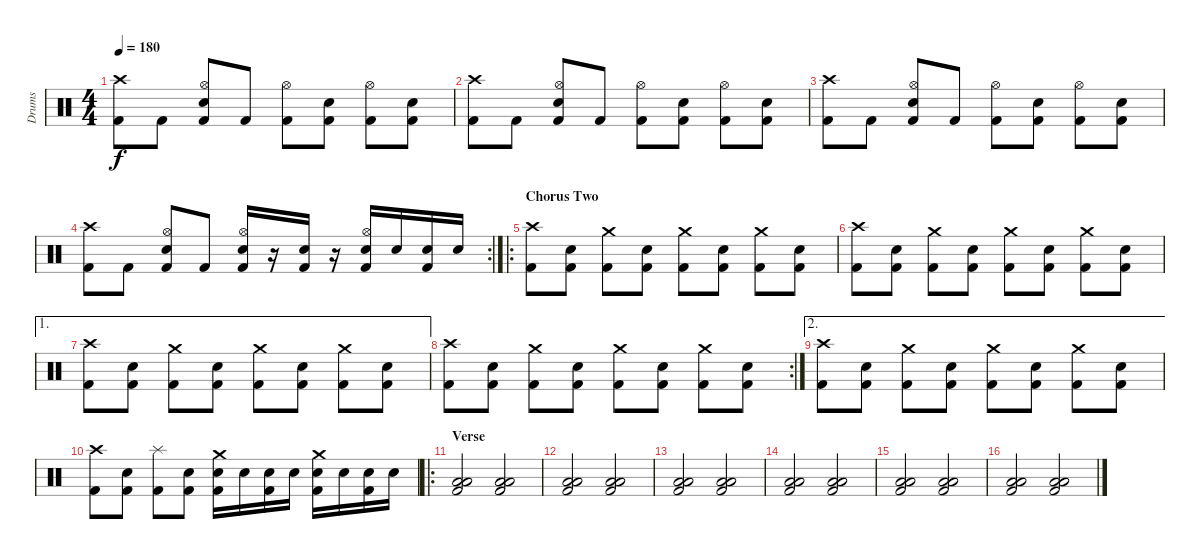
\track ("Drums" "Drums") {instrument percussion}
\staff {score}
\articulation defaults
\ts (4 4)
\tempo 180
\clef neutral
\ks c
("Crash high (hit)" "Kick (hit) 2").8{dy f} "Kick (hit) 2".8 ("Hi-Hat (open)" "Electric Snare (hit)" "Kick (hit) 2").8 "Kick (hit) 2".8 ("Hi-Hat (open)" "Kick (hit) 2").8 ("Electric Snare (hit)" "Kick (hit) 2").8 ("Hi-Hat (open)" "Kick (hit) 2").8 ("Electric Snare (hit)" "Kick (hit) 2").8 |
("Crash high (hit)" "Kick (hit) 2").8 "Kick (hit) 2".8 ("Hi-Hat (open)" "Electric Snare (hit)" "Kick (hit) 2").8 "Kick (hit) 2".8 ("Hi-Hat (open)" "Kick (hit) 2").8 ("Electric Snare (hit)" "Kick (hit) 2").8 ("Hi-Hat (open)" "Kick (hit) 2").8 ("Electric Snare (hit)" "Kick (hit) 2").8 |
("Crash high (hit)" "Kick (hit) 2").8 "Kick (hit) 2".8 ("Hi-Hat (open)" "Electric Snare (hit)" "Kick (hit) 2").8 "Kick (hit) 2".8 ("Hi-Hat (open)" "Kick (hit) 2").8 ("Electric Snare (hit)" "Kick (hit) 2").8 ("Hi-Hat (open)" "Kick (hit) 2").8 ("Electric Snare (hit)" "Kick (hit) 2").8 |
\rc 2
("Crash high (hit)" "Kick (hit) 2").8 "Kick (hit) 2".8 ("Hi-Hat (open)" "Electric Snare (hit)" "Kick (hit) 2").8 "Kick (hit) 2".8 ("Hi-Hat (open)" "Electric Snare (hit)" "Kick (hit) 2").16 r.16 ("Electric Snare (hit)" "Kick (hit) 2").16 r.16 ("Hi-Hat (open)" "Electric Snare (hit)" "Kick (hit) 2").16 "Electric Snare (hit)".16 ("Electric Snare (hit)" "Kick (hit) 2").16 "Electric Snare (hit)".16 |
\ro
\section ("" "Chorus Two")
("Crash high (hit)" "Kick (hit) 2").8 ("Electric Snare (hit)" "Kick (hit) 2").8 ("Crash medium (hit)" "Kick (hit) 2").8 ("Electric Snare (hit)" "Kick (hit) 2").8 ("Crash medium (hit)" "Kick (hit) 2").8 ("Electric Snare (hit)" "Kick (hit) 2").8 ("Crash medium (hit)" "Kick (hit) 2").8 ("Electric Snare (hit)" "Kick (hit) 2").8 |
("Crash high (hit)" "Kick (hit) 2").8 ("Electric Snare (hit)" "Kick (hit) 2").8 ("Crash medium (hit)" "Kick (hit) 2").8 ("Electric Snare (hit)" "Kick (hit) 2").8 ("Crash medium (hit)" "Kick (hit) 2").8 ("Electric Snare (hit)" "Kick (hit) 2").8 ("Crash medium (hit)" "Kick (hit) 2").8 ("Electric Snare (hit)" "Kick (hit) 2").8 |
\ae 1
("Crash high (hit)" "Kick (hit) 2").8 ("Electric Snare (hit)" "Kick (hit) 2").8 ("Crash medium (hit)" "Kick (hit) 2").8 ("Electric Snare (hit)" "Kick (hit) 2").8 ("Crash medium (hit)" "Kick (hit) 2").8 ("Electric Snare (hit)" "Kick (hit) 2").8 ("Crash medium (hit)" "Kick (hit) 2").8 ("Electric Snare (hit)" "Kick (hit) 2").8 |
\rc 2
("Crash high (hit)" "Kick (hit) 2").8 ("Electric Snare (hit)" "Kick (hit) 2").8 ("Crash medium (hit)" "Kick (hit) 2").8 ("Electric Snare (hit)" "Kick (hit) 2").8 ("Crash medium (hit)" "Kick (hit) 2").8 ("Electric Snare (hit)" "Kick (hit) 2").8 ("Crash medium (hit)" "Kick (hit) 2").8 ("Electric Snare (hit)" "Kick (hit) 2").8 |
\ae 2
("Crash high (hit)" "Kick (hit) 2").8 ("Electric Snare (hit)" "Kick (hit) 2").8 ("Crash medium (hit)" "Kick (hit) 2").8 ("Electric Snare (hit)" "Kick (hit) 2").8 ("Crash medium (hit)" "Kick (hit) 2").8 ("Electric Snare (hit)" "Kick (hit) 2").8 ("Crash medium (hit)" "Kick (hit) 2").8 ("Electric Snare (hit)" "Kick (hit) 2").8 |
("Crash high (hit)" "Kick (hit) 2").8 ("Electric Snare (hit)" "Kick (hit) 2").8 ("Splash (hit)" "Kick (hit) 2").8 ("Electric Snare (hit)" "Kick (hit) 2").8 ("Crash medium (hit)" "Electric Snare (hit)" "Kick (hit) 2").16 "Electric Snare (hit)".16 ("Electric Snare (hit)" "Kick (hit) 2").16 "Electric Snare (hit)".16 ("Crash medium (hit)" "Electric Snare (hit)" "Kick (hit) 2").16 "Electric Snare (hit)".16 ("Electric Snare (hit)" "Kick (hit) 2").16 "Electric Snare (hit)".16 |
\ro
\section ("" "Verse")
("Kick (hit) 2" "Low Tom (hit)" "Low Floor Tom (hit)").2{volume 13} ("Kick (hit) 2" "Low Tom (hit)" "Low Floor Tom (hit)").2 |
("Kick (hit) 2" "Low Tom (hit)" "Low Floor Tom (hit)").2 ("Kick (hit) 2" "Low Tom (hit)" "Low Floor Tom (hit)").2 |
("Kick (hit) 2" "Low Tom (hit)" "Low Floor Tom (hit)").2 ("Kick (hit) 2" "Low Tom (hit)" "Low Floor Tom (hit)").2 |
("Kick (hit) 2" "Low Tom (hit)" "Low Floor Tom (hit)").2 ("Kick (hit) 2" "Low Tom (hit)" "Low Floor Tom (hit)").2 |
("Kick (hit) 2" "Low Tom (hit)" "Low Floor Tom (hit)").2 ("Kick (hit) 2" "Low Tom (hit)" "Low Floor Tom (hit)").2 |
("Kick (hit) 2" "Low Tom (hit)" "Low Floor Tom (hit)").2 ("Kick (hit) 2" "Low Tom (hit)" "Low Floor Tom (hit)").2
